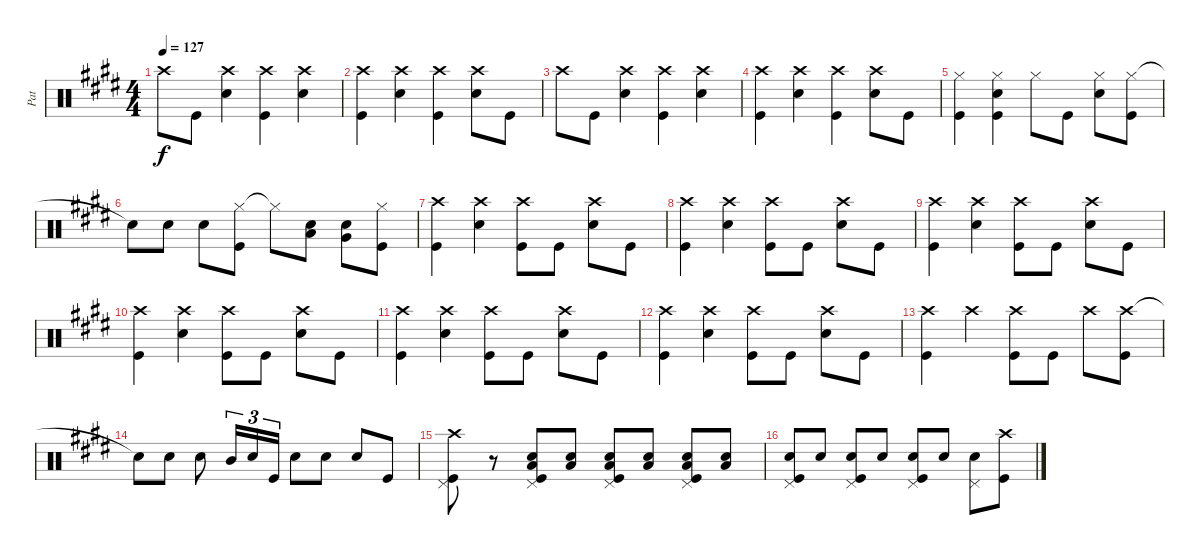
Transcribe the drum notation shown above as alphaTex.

\track ("Pat" "Pat") {instrument percussion}
\staff {score}
\articulation defaults
\ts (4 4)
\tempo 127
\clef neutral
\ks e "Crash high (hit)".8{dy f} "Kick (hit)".8
("Crash high (hit)" "Snare (hit) 2").4 ("Crash high (hit)" "Kick (hit)").4 ("Crash high (hit)" "Snare (hit) 2").4 |
("Crash high (hit)" "Kick (hit)").4 ("Crash high (hit)" "Snare (hit) 2").4 ("Crash high (hit)" "Kick (hit)").4 ("Crash high (hit)" "Snare (hit) 2").8 "Kick (hit)".8 |
"Crash high (hit)".8 "Kick (hit)".8 ("Crash high (hit)" "Snare (hit) 2").4 ("Crash high (hit)" "Kick (hit)").4 ("Crash high (hit)" "Snare (hit) 2").4 |
("Crash high (hit)" "Kick (hit)").4 ("Crash high (hit)" "Snare (hit) 2").4 ("Crash high (hit)" "Kick (hit)").4 ("Crash high (hit)" "Snare (hit) 2").8 "Kick (hit)".8 |
("Hi-Hat (closed)" "Kick (hit)").4 ("Hi-Hat (closed)" "Snare (hit) 2" "Kick (hit)").4 "Hi-Hat (closed)".8 "Kick (hit)".8 ("Hi-Hat (closed)" "Snare (hit) 2").8 ("Hi-Hat (closed)" "Kick (hit)").8 |
"Snare (hit)"{t}.8 "Snare (hit) 2".8 "Snare (hit) 2".8 ("Hi-Hat (closed)" "Kick (hit)").8 "Hi-Hat (closed)"{t}.8 ("Snare (hit) 2" "Low Tom (hit)").8 ("Snare (hit) 2" "Very Low Tom (hit)").8 ("Hi-Hat (closed)" "Kick (hit)").8 |
("Crash high (hit)" "Kick (hit)").4 ("Crash high (hit)" "Snare (hit) 2").4 ("Crash high (hit)" "Kick (hit)").8 "Kick (hit)".8 ("Crash high (hit)" "Snare (hit) 2").8 "Kick (hit)".8 |
("Crash high (hit)" "Kick (hit)").4 ("Crash high (hit)" "Snare (hit) 2").4 ("Crash high (hit)" "Kick (hit)").8 "Kick (hit)".8 ("Crash high (hit)" "Snare (hit) 2").8 "Kick (hit)".8 |
("Crash high (hit)" "Kick (hit)").4 ("Crash high (hit)" "Snare (hit) 2").4 ("Crash high (hit)" "Kick (hit)").8 "Kick (hit)".8 ("Crash high (hit)" "Snare (hit) 2").8 "Kick (hit)".8 |
("Crash high (hit)" "Kick (hit)").4 ("Crash high (hit)" "Snare (hit) 2").4 ("Crash high (hit)" "Kick (hit)").8 "Kick (hit)".8 ("Crash high (hit)" "Snare (hit) 2").8 "Kick (hit)".8 |
("Crash high (hit)" "Kick (hit)").4 ("Crash high (hit)" "Snare (hit) 2").4 ("Crash high (hit)" "Kick (hit)").8 "Kick (hit)".8 ("Crash high (hit)" "Snare (hit) 2").8 "Kick (hit)".8 |
("Crash high (hit)" "Kick (hit)").4 ("Crash high (hit)" "Snare (hit) 2").4 ("Crash high (hit)" "Kick (hit)").8 "Kick (hit)".8 ("Crash high (hit)" "Snare (hit) 2").8 "Kick (hit)".8 |
("Crash high (hit)" "Kick (hit)").4 "Crash high (hit)".4 ("Crash high (hit)" "Kick (hit)").8 "Kick (hit)".8 "Crash high (hit)".8 ("Crash high (hit)" "Kick (hit)").8 |
"Snare (hit)"{t}.8 "Snare (hit) 2".8 "Snare (hit) 2".8 "Mid Tom (hit)".16{tu (3 2)} "Snare (hit) 2".16{tu (3 2)} "Kick (hit)".16{tu (3 2)} "Snare (hit) 2".8 "Snare (hit) 2".8 "Snare (hit) 2".8 "Kick (hit)".8 |
("Crash high (hit)" "Pedal Hi-Hat (hit)" "Kick (hit)").8 r.8 ("Kick (hit)" "Pedal Hi-Hat (hit)" "Snare (hit) 2" "Low Tom (hit)").8 ("Snare (hit) 2" "Low Tom (hit)").8 ("Kick (hit)" "Pedal Hi-Hat (hit)" "Snare (hit) 2" "Low Tom (hit)").8 ("Snare (hit) 2" "Low Tom (hit)").8 ("Kick (hit)" "Pedal Hi-Hat (hit)" "Snare (hit) 2" "Low Tom (hit)").8 ("Snare (hit) 2" "Low Tom (hit)").8 |
("Kick (hit)" "Pedal Hi-Hat (hit)" "Snare (hit) 2").8 "Snare (hit) 2".8 ("Kick (hit)" "Pedal Hi-Hat (hit)" "Snare (hit) 2").8 "Snare (hit) 2".8 ("Kick (hit)" "Pedal Hi-Hat (hit)" "Snare (hit) 2").8 "Snare (hit) 2".8 ("Pedal Hi-Hat (hit)" "Snare (hit) 2").8 ("Kick (hit)" "Crash high (hit)").8
